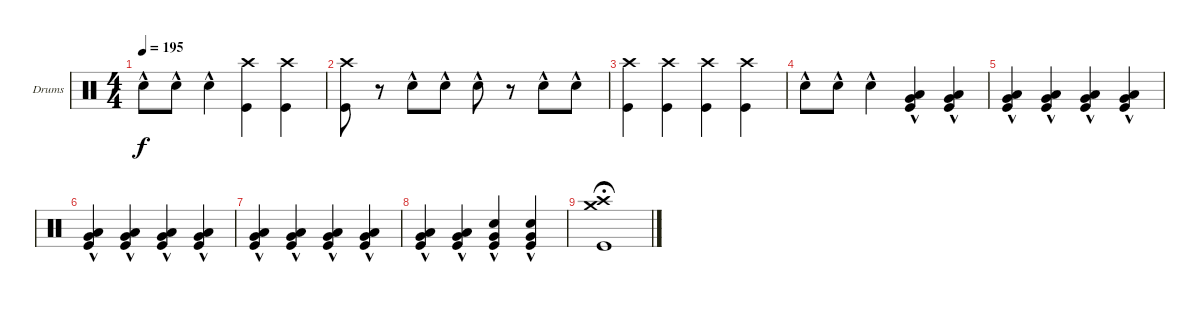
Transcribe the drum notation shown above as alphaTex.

\defaultSystemsLayout 4
\bracketExtendMode groupsimilarinstruments
\firstSystemTrackNameOrientation horizontal
\otherSystemsTrackNameOrientation horizontal
\track ("Drumkit" "Drums") {instrument percussion}
\staff {score}
\articulation defaults
\ts (4 4)
\tempo 195
\clef neutral
\ks c "Snare (hit) 2"{hac}.8{dy f} "Snare (hit) 2"{hac}.8 "Snare (hit) 2"{hac}.4
("Kick (hit)" "Crash high (hit)").4 ("Kick (hit)" "Crash high (hit)").4 |
("Kick (hit)" "Crash high (hit)").8 r.8 "Snare (hit) 2"{hac}.8 "Snare (hit) 2"{hac}.8 "Snare (hit) 2"{hac}.8 r.8 "Snare (hit) 2"{hac}.8 "Snare (hit) 2"{hac}.8 |
("Kick (hit)" "Crash high (hit)").4 ("Kick (hit)" "Crash high (hit)").4 ("Kick (hit)" "Crash high (hit)").4 ("Kick (hit)" "Crash high (hit)").4 |
"Snare (hit) 2"{hac}.8 "Snare (hit) 2"{hac}.8 "Snare (hit) 2"{hac}.4 ("Low Tom (hit)"{hac} "Very Low Tom (hit)"{hac} "Kick (hit)").4 ("Low Tom (hit)"{hac} "Very Low Tom (hit)"{hac} "Kick (hit)").4 |
("Low Tom (hit)"{hac} "Very Low Tom (hit)"{hac} "Kick (hit)").4 ("Low Tom (hit)"{hac} "Very Low Tom (hit)"{hac} "Kick (hit)").4 ("Low Tom (hit)"{hac} "Very Low Tom (hit)"{hac} "Kick (hit)").4 ("Low Tom (hit)"{hac} "Very Low Tom (hit)"{hac} "Kick (hit)").4 |
("Low Tom (hit)"{hac} "Very Low Tom (hit)"{hac} "Kick (hit)").4 ("Low Tom (hit)"{hac} "Very Low Tom (hit)"{hac} "Kick (hit)").4 ("Low Tom (hit)"{hac} "Very Low Tom (hit)"{hac} "Kick (hit)").4 ("Low Tom (hit)"{hac} "Very Low Tom (hit)"{hac} "Kick (hit)").4 |
("Low Tom (hit)"{hac} "Very Low Tom (hit)"{hac} "Kick (hit)").4 ("Low Tom (hit)"{hac} "Very Low Tom (hit)"{hac} "Kick (hit)").4 ("Low Tom (hit)"{hac} "Very Low Tom (hit)"{hac} "Kick (hit)").4 ("Low Tom (hit)"{hac} "Very Low Tom (hit)"{hac} "Kick (hit)").4 |
("Low Tom (hit)"{hac} "Very Low Tom (hit)"{hac} "Kick (hit)").4 ("Low Tom (hit)"{hac} "Very Low Tom (hit)"{hac} "Kick (hit)").4 ("Very Low Tom (hit)"{hac} "Kick (hit)" "Snare (hit) 2"{hac}).4 ("Very Low Tom (hit)"{hac} "Kick (hit)" "Snare (hit) 2"{hac}).4 |
("Kick (hit)" "Crash medium (hit)" "Crash high (hit)").1{fermata (medium 0.49)}
